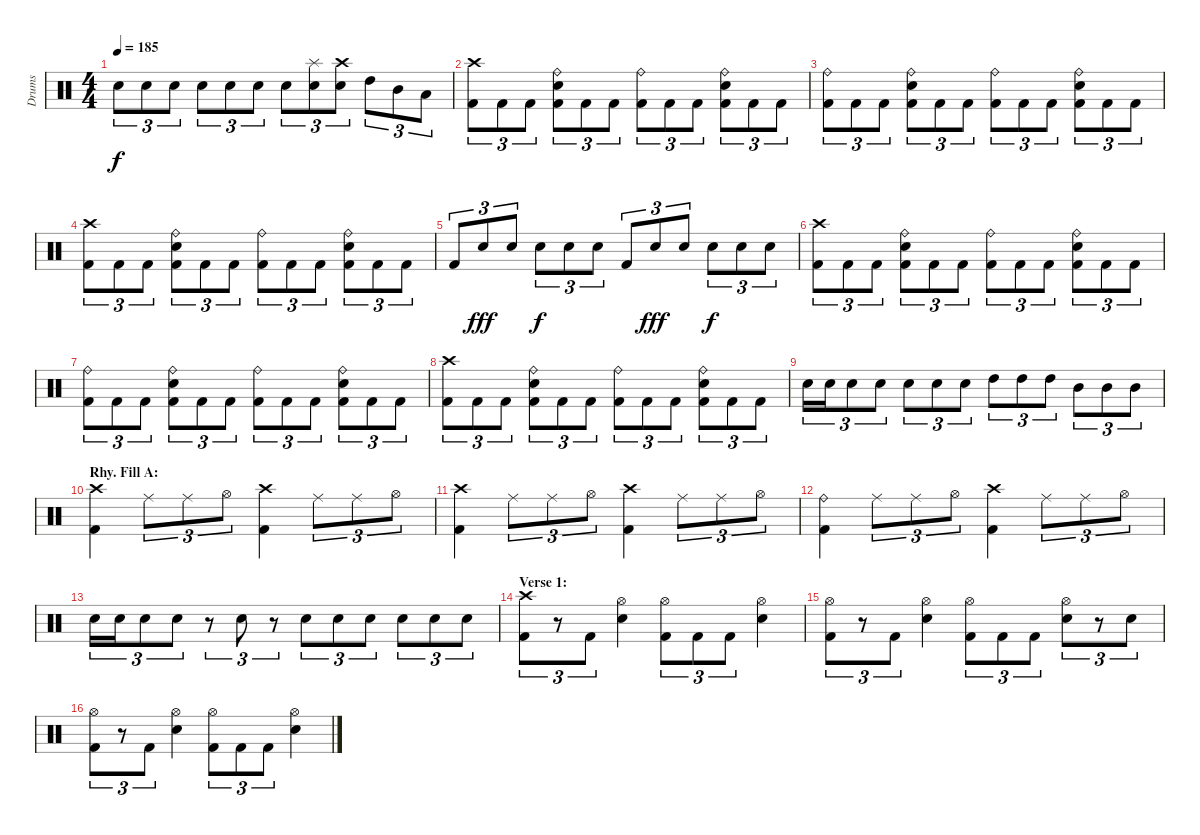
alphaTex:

\track ("Drums" "Drums") {instrument percussion}
\staff {score}
\articulation defaults
\ts (4 4)
\tempo 185
\clef neutral
\ks c "Electric Snare (hit)".8{tu (3 2) dy f} "Electric Snare (hit)".8{tu (3 2)} "Electric Snare (hit)".8{tu (3 2)} "Electric Snare (hit)".8{tu (3 2)} "Electric Snare (hit)".8{tu (3 2)} "Electric Snare (hit)".8{tu (3 2)} "Electric Snare (hit)".8{tu (3 2)}
("Splash (hit)" "Electric Snare (hit)").8{tu (3 2)} ("Crash high (hit)" "Electric Snare (hit)").8{tu (3 2)} "High Tom (hit)".8{tu (3 2)} "Mid Tom (hit)".8{tu (3 2)} "Low Tom (hit)".8{tu (3 2)} |
("Crash high (hit)" "Kick (hit) 2").8{tu (3 2)} "Kick (hit) 2".8{tu (3 2)} "Kick (hit) 2".8{tu (3 2)} ("Ride (bell)" "Electric Snare (hit)" "Kick (hit) 2").8{tu (3 2)} "Kick (hit) 2".8{tu (3 2)} "Kick (hit) 2".8{tu (3 2)} ("Ride (bell)" "Kick (hit) 2").8{tu (3 2)} "Kick (hit) 2".8{tu (3 2)} "Kick (hit) 2".8{tu (3 2)} ("Ride (bell)" "Electric Snare (hit)" "Kick (hit) 2").8{tu (3 2)} "Kick (hit) 2".8{tu (3 2)} "Kick (hit) 2".8{tu (3 2)} |
("Ride (bell)" "Kick (hit) 2").8{tu (3 2)} "Kick (hit) 2".8{tu (3 2)} "Kick (hit) 2".8{tu (3 2)} ("Ride (bell)" "Electric Snare (hit)" "Kick (hit) 2").8{tu (3 2)} "Kick (hit) 2".8{tu (3 2)} "Kick (hit) 2".8{tu (3 2)} ("Ride (bell)" "Kick (hit) 2").8{tu (3 2)} "Kick (hit) 2".8{tu (3 2)} "Kick (hit) 2".8{tu (3 2)} ("Ride (bell)" "Electric Snare (hit)" "Kick (hit) 2").8{tu (3 2)} "Kick (hit) 2".8{tu (3 2)} "Kick (hit) 2".8{tu (3 2)} |
("Crash high (hit)" "Kick (hit) 2").8{tu (3 2)} "Kick (hit) 2".8{tu (3 2)} "Kick (hit) 2".8{tu (3 2)} ("Ride (bell)" "Electric Snare (hit)" "Kick (hit) 2").8{tu (3 2)} "Kick (hit) 2".8{tu (3 2)} "Kick (hit) 2".8{tu (3 2)} ("Ride (bell)" "Kick (hit) 2").8{tu (3 2)} "Kick (hit) 2".8{tu (3 2)} "Kick (hit) 2".8{tu (3 2)} ("Ride (bell)" "Electric Snare (hit)" "Kick (hit) 2").8{tu (3 2)} "Kick (hit) 2".8{tu (3 2)} "Kick (hit) 2".8{tu (3 2)} |
"Kick (hit) 2".8{tu (3 2)} "Electric Snare (hit)".8{tu (3 2) dy fff} "Electric Snare (hit)".8{tu (3 2)} "Electric Snare (hit)".8{tu (3 2) dy f} "Electric Snare (hit)".8{tu (3 2)} "Electric Snare (hit)".8{tu (3 2)} "Kick (hit) 2".8{tu (3 2)} "Electric Snare (hit)".8{tu (3 2) dy fff} "Electric Snare (hit)".8{tu (3 2)} "Electric Snare (hit)".8{tu (3 2) dy f} "Electric Snare (hit)".8{tu (3 2)} "Electric Snare (hit)".8{tu (3 2)} |
("Crash high (hit)" "Kick (hit) 2").8{tu (3 2)} "Kick (hit) 2".8{tu (3 2)} "Kick (hit) 2".8{tu (3 2)} ("Ride (bell)" "Electric Snare (hit)" "Kick (hit) 2").8{tu (3 2)} "Kick (hit) 2".8{tu (3 2)} "Kick (hit) 2".8{tu (3 2)} ("Ride (bell)" "Kick (hit) 2").8{tu (3 2)} "Kick (hit) 2".8{tu (3 2)} "Kick (hit) 2".8{tu (3 2)} ("Ride (bell)" "Electric Snare (hit)" "Kick (hit) 2").8{tu (3 2)} "Kick (hit) 2".8{tu (3 2)} "Kick (hit) 2".8{tu (3 2)} |
("Ride (bell)" "Kick (hit) 2").8{tu (3 2)} "Kick (hit) 2".8{tu (3 2)} "Kick (hit) 2".8{tu (3 2)} ("Ride (bell)" "Electric Snare (hit)" "Kick (hit) 2").8{tu (3 2)} "Kick (hit) 2".8{tu (3 2)} "Kick (hit) 2".8{tu (3 2)} ("Ride (bell)" "Kick (hit) 2").8{tu (3 2)} "Kick (hit) 2".8{tu (3 2)} "Kick (hit) 2".8{tu (3 2)} ("Ride (bell)" "Electric Snare (hit)" "Kick (hit) 2").8{tu (3 2)} "Kick (hit) 2".8{tu (3 2)} "Kick (hit) 2".8{tu (3 2)} |
("Crash high (hit)" "Kick (hit) 2").8{tu (3 2)} "Kick (hit) 2".8{tu (3 2)} "Kick (hit) 2".8{tu (3 2)} ("Ride (bell)" "Electric Snare (hit)" "Kick (hit) 2").8{tu (3 2)} "Kick (hit) 2".8{tu (3 2)} "Kick (hit) 2".8{tu (3 2)} ("Ride (bell)" "Kick (hit) 2").8{tu (3 2)} "Kick (hit) 2".8{tu (3 2)} "Kick (hit) 2".8{tu (3 2)} ("Ride (bell)" "Electric Snare (hit)" "Kick (hit) 2").8{tu (3 2)} "Kick (hit) 2".8{tu (3 2)} "Kick (hit) 2".8{tu (3 2)} |
"Electric Snare (hit)".16{tu (3 2)} "Electric Snare (hit)".16{tu (3 2)} "Electric Snare (hit)".8{tu (3 2)} "Electric Snare (hit)".8{tu (3 2)} "Electric Snare (hit)".8{tu (3 2)} "Electric Snare (hit)".8{tu (3 2)} "Electric Snare (hit)".8{tu (3 2)} "High Tom (hit)".8{tu (3 2)} "High Tom (hit)".8{tu (3 2)} "High Tom (hit)".8{tu (3 2)} "Mid Tom (hit)".8{tu (3 2)} "Mid Tom (hit)".8{tu (3 2)} "Mid Tom (hit)".8{tu (3 2)} |
\section ("" "Rhy. Fill A:")
("Crash high (hit)" "Kick (hit) 2").4 "Ride (middle)".8{tu (3 2)} "Ride (middle)".8{tu (3 2)} "Hi-Hat (open)".8{tu (3 2)} ("Crash high (hit)" "Kick (hit) 2").4 "Ride (middle)".8{tu (3 2)} "Ride (middle)".8{tu (3 2)} "Hi-Hat (open)".8{tu (3 2)} |
("Crash high (hit)" "Kick (hit) 2").4 "Ride (middle)".8{tu (3 2)} "Ride (middle)".8{tu (3 2)} "Hi-Hat (open)".8{tu (3 2)} ("Crash high (hit)" "Kick (hit) 2").4 "Ride (middle)".8{tu (3 2)} "Ride (middle)".8{tu (3 2)} "Hi-Hat (open)".8{tu (3 2)} |
("Ride (bell)" "Kick (hit) 2").4 "Ride (middle)".8{tu (3 2)} "Ride (middle)".8{tu (3 2)} "Hi-Hat (open)".8{tu (3 2)} ("Crash high (hit)" "Kick (hit) 2").4 "Ride (middle)".8{tu (3 2)} "Ride (middle)".8{tu (3 2)} "Hi-Hat (open)".8{tu (3 2)} |
"Electric Snare (hit)".16{tu (3 2)} "Electric Snare (hit)".16{tu (3 2)} "Electric Snare (hit)".8{tu (3 2)} "Electric Snare (hit)".8{tu (3 2)} r.8{tu (3 2)} "Electric Snare (hit)".8{tu (3 2)} r.8{tu (3 2)} "Electric Snare (hit)".8{tu (3 2)} "Electric Snare (hit)".8{tu (3 2)} "Electric Snare (hit)".8{tu (3 2)} "Electric Snare (hit)".8{tu (3 2)} "Electric Snare (hit)".8{tu (3 2)} "Electric Snare (hit)".8{tu (3 2)} |
\section ("" "Verse 1:")
("Crash high (hit)" "Kick (hit) 2").8{tu (3 2)} r.8{tu (3 2)} "Kick (hit) 2".8{tu (3 2)} ("Hi-Hat (open)" "Electric Snare (hit)").4 ("Hi-Hat (open)" "Kick (hit) 2").8{tu (3 2)} "Kick (hit) 2".8{tu (3 2)} "Kick (hit) 2".8{tu (3 2)} ("Hi-Hat (open)" "Electric Snare (hit)").4 |
("Hi-Hat (open)" "Kick (hit) 2").8{tu (3 2)} r.8{tu (3 2)} "Kick (hit) 2".8{tu (3 2)} ("Hi-Hat (open)" "Electric Snare (hit)").4 ("Hi-Hat (open)" "Kick (hit) 2").8{tu (3 2)} "Kick (hit) 2".8{tu (3 2)} "Kick (hit) 2".8{tu (3 2)} ("Hi-Hat (open)" "Electric Snare (hit)").8{tu (3 2)} r.8{tu (3 2)} "Electric Snare (hit)".8{tu (3 2)} |
("Hi-Hat (open)" "Kick (hit) 2").8{tu (3 2)} r.8{tu (3 2)} "Kick (hit) 2".8{tu (3 2)} ("Hi-Hat (open)" "Electric Snare (hit)").4 ("Hi-Hat (open)" "Kick (hit) 2").8{tu (3 2)} "Kick (hit) 2".8{tu (3 2)} "Kick (hit) 2".8{tu (3 2)} ("Hi-Hat (open)" "Electric Snare (hit)").4
